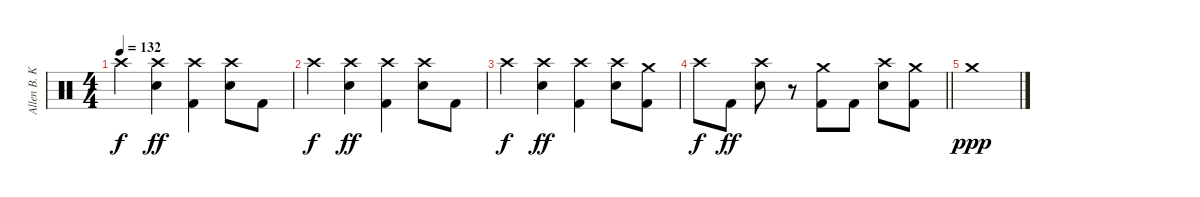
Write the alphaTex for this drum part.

\track ("Allen B. Konstanz (Drums)" "Allen B. K") {instrument percussion}
\staff {score}
\articulation defaults
\ts (4 4)
\tempo 132
\clef neutral
\ks c "Crash high (hit)".4{dy f}
("Electric Snare (hit)" "Crash high (hit)").4{dy ff} ("Kick (hit) 2" "Crash high (hit)").4 ("Electric Snare (hit)" "Crash high (hit)").8 "Kick (hit) 2".8 |
"Crash high (hit)".4{dy f} ("Electric Snare (hit)" "Crash high (hit)").4{dy ff} ("Kick (hit) 2" "Crash high (hit)").4 ("Electric Snare (hit)" "Crash high (hit)").8 "Kick (hit) 2".8 |
"Crash high (hit)".4{dy f} ("Electric Snare (hit)" "Crash high (hit)").4{dy ff} ("Kick (hit) 2" "Crash high (hit)").4 ("Electric Snare (hit)" "Crash high (hit)").8 ("Kick (hit) 2" "Crash medium (hit)").8 |
\barLineRight lightlight "Crash high (hit)".8{dy f} "Kick (hit) 2".8{dy ff}
("Electric Snare (hit)" "Crash high (hit)").8 r.8 ("Kick (hit) 2" "Crash medium (hit)").8 "Kick (hit) 2".8 ("Electric Snare (hit)" "Crash high (hit)").8 ("Kick (hit) 2" "Crash medium (hit)").8 |
"Crash medium (hit)".1{dy ppp}
